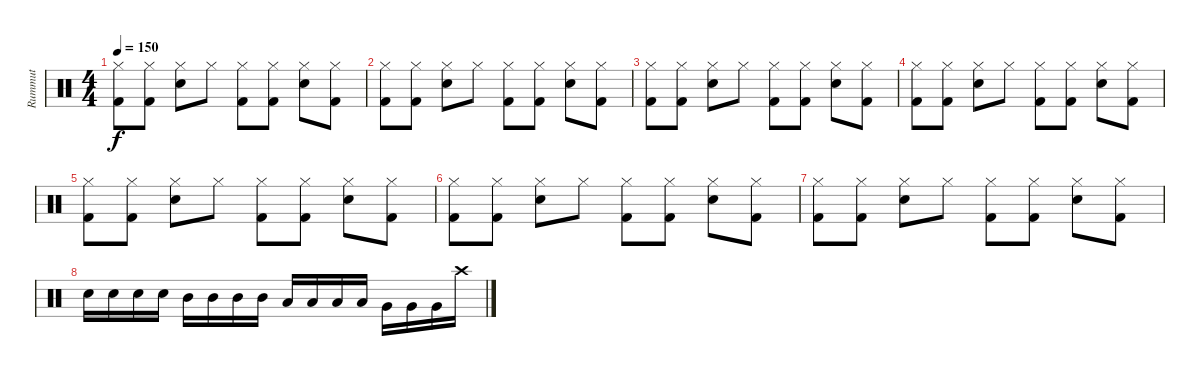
\track ("Rummut" "Rummut") {instrument percussion}
\staff {score}
\articulation defaults
\ts (4 4)
\tempo 150
\clef neutral
\ks c
("Hi-Hat (closed)" "Kick (hit) 2").8{dy f} ("Hi-Hat (closed)" "Kick (hit) 2").8 ("Electric Snare (hit)" "Hi-Hat (closed)").8 "Hi-Hat (closed)".8 ("Hi-Hat (closed)" "Kick (hit) 2").8 ("Hi-Hat (closed)" "Kick (hit) 2").8 ("Electric Snare (hit)" "Hi-Hat (closed)").8 ("Hi-Hat (closed)" "Kick (hit) 2").8 |
("Hi-Hat (closed)" "Kick (hit) 2").8 ("Hi-Hat (closed)" "Kick (hit) 2").8 ("Electric Snare (hit)" "Hi-Hat (closed)").8 "Hi-Hat (closed)".8 ("Hi-Hat (closed)" "Kick (hit) 2").8 ("Hi-Hat (closed)" "Kick (hit) 2").8 ("Electric Snare (hit)" "Hi-Hat (closed)").8 ("Hi-Hat (closed)" "Kick (hit) 2").8 |
("Hi-Hat (closed)" "Kick (hit) 2").8 ("Hi-Hat (closed)" "Kick (hit) 2").8 ("Electric Snare (hit)" "Hi-Hat (closed)").8 "Hi-Hat (closed)".8 ("Hi-Hat (closed)" "Kick (hit) 2").8 ("Hi-Hat (closed)" "Kick (hit) 2").8 ("Electric Snare (hit)" "Hi-Hat (closed)").8 ("Hi-Hat (closed)" "Kick (hit) 2").8 |
("Hi-Hat (closed)" "Kick (hit) 2").8 ("Hi-Hat (closed)" "Kick (hit) 2").8 ("Electric Snare (hit)" "Hi-Hat (closed)").8 "Hi-Hat (closed)".8 ("Hi-Hat (closed)" "Kick (hit) 2").8 ("Hi-Hat (closed)" "Kick (hit) 2").8 ("Electric Snare (hit)" "Hi-Hat (closed)").8 ("Hi-Hat (closed)" "Kick (hit) 2").8 |
("Hi-Hat (closed)" "Kick (hit) 2").8 ("Hi-Hat (closed)" "Kick (hit) 2").8 ("Electric Snare (hit)" "Hi-Hat (closed)").8 "Hi-Hat (closed)".8 ("Hi-Hat (closed)" "Kick (hit) 2").8 ("Hi-Hat (closed)" "Kick (hit) 2").8 ("Electric Snare (hit)" "Hi-Hat (closed)").8 ("Hi-Hat (closed)" "Kick (hit) 2").8 |
("Hi-Hat (closed)" "Kick (hit) 2").8 ("Hi-Hat (closed)" "Kick (hit) 2").8 ("Electric Snare (hit)" "Hi-Hat (closed)").8 "Hi-Hat (closed)".8 ("Hi-Hat (closed)" "Kick (hit) 2").8 ("Hi-Hat (closed)" "Kick (hit) 2").8 ("Electric Snare (hit)" "Hi-Hat (closed)").8 ("Hi-Hat (closed)" "Kick (hit) 2").8 |
("Hi-Hat (closed)" "Kick (hit) 2").8 ("Hi-Hat (closed)" "Kick (hit) 2").8 ("Electric Snare (hit)" "Hi-Hat (closed)").8 "Hi-Hat (closed)".8 ("Hi-Hat (closed)" "Kick (hit) 2").8 ("Hi-Hat (closed)" "Kick (hit) 2").8 ("Electric Snare (hit)" "Hi-Hat (closed)").8 ("Hi-Hat (closed)" "Kick (hit) 2").8 |
"Electric Snare (hit)".16 "Electric Snare (hit)".16 "Electric Snare (hit)".16 "Electric Snare (hit)".16 "Mid Tom (hit)".16 "Mid Tom (hit)".16 "Mid Tom (hit)".16 "Mid Tom (hit)".16 "Low Tom (hit)".16 "Low Tom (hit)".16 "Low Tom (hit)".16 "Low Tom (hit)".16 "Very Low Tom (hit)".16 "Very Low Tom (hit)".16 "Very Low Tom (hit)".16 "Crash high (hit)".16
